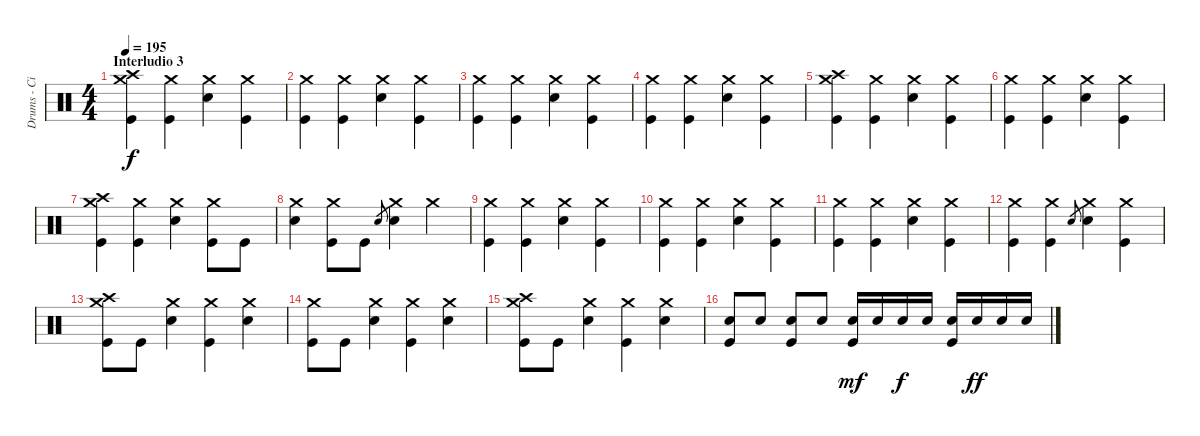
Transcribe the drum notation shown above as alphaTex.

\track ("Drums - Ciro" "Drums - Ci") {instrument percussion}
\staff {score}
\articulation defaults
\ts (4 4)
\section ("" "Interludio 3")
\tempo 195
\clef neutral
\ks c
("Crash medium (hit)" "Crash high (hit)" "Kick (hit)").4{dy f} ("Crash medium (hit)" "Kick (hit)").4 ("Crash medium (hit)" "Electric Snare (hit)").4 ("Crash medium (hit)" "Kick (hit)").4 |
("Crash medium (hit)" "Kick (hit)").4 ("Crash medium (hit)" "Kick (hit)").4 ("Crash medium (hit)" "Electric Snare (hit)").4 ("Crash medium (hit)" "Kick (hit)").4 |
("Crash medium (hit)" "Kick (hit)").4 ("Crash medium (hit)" "Kick (hit)").4 ("Crash medium (hit)" "Electric Snare (hit)").4 ("Crash medium (hit)" "Kick (hit)").4 |
("Crash medium (hit)" "Kick (hit)").4 ("Crash medium (hit)" "Kick (hit)").4 ("Crash medium (hit)" "Electric Snare (hit)").4 ("Crash medium (hit)" "Kick (hit)").4 |
("Crash medium (hit)" "Crash high (hit)" "Kick (hit)").4 ("Crash medium (hit)" "Kick (hit)").4 ("Crash medium (hit)" "Electric Snare (hit)").4 ("Crash medium (hit)" "Kick (hit)").4 |
("Crash medium (hit)" "Kick (hit)").4 ("Crash medium (hit)" "Kick (hit)").4 ("Crash medium (hit)" "Electric Snare (hit)").4 ("Crash medium (hit)" "Kick (hit)").4 |
("Crash medium (hit)" "Crash high (hit)" "Kick (hit)").4 ("Crash medium (hit)" "Kick (hit)").4 ("Crash medium (hit)" "Electric Snare (hit)").4 ("Crash medium (hit)" "Kick (hit)").8 "Kick (hit)".8 |
("Crash medium (hit)" "Electric Snare (hit)").4 ("Crash medium (hit)" "Kick (hit)").8 "Kick (hit)".8 "Electric Snare (hit)".8{gr} ("Crash medium (hit)" "Electric Snare (hit)").4 "Crash medium (hit)".4 |
("Crash medium (hit)" "Kick (hit)").4 ("Crash medium (hit)" "Kick (hit)").4 ("Crash medium (hit)" "Electric Snare (hit)").4 ("Crash medium (hit)" "Kick (hit)").4 |
("Crash medium (hit)" "Kick (hit)").4 ("Crash medium (hit)" "Kick (hit)").4 ("Crash medium (hit)" "Electric Snare (hit)").4 ("Crash medium (hit)" "Kick (hit)").4 |
("Crash medium (hit)" "Kick (hit)").4 ("Crash medium (hit)" "Kick (hit)").4 ("Crash medium (hit)" "Electric Snare (hit)").4 ("Crash medium (hit)" "Kick (hit)").4 |
("Crash medium (hit)" "Kick (hit)").4 ("Crash medium (hit)" "Kick (hit)").4 "Electric Snare (hit)".8{gr} ("Crash medium (hit)" "Electric Snare (hit)").4 ("Crash medium (hit)" "Kick (hit)").4 |
("Crash medium (hit)" "Crash high (hit)" "Kick (hit)").8 "Kick (hit)".8 ("Crash medium (hit)" "Electric Snare (hit)").4 ("Crash medium (hit)" "Kick (hit)").4 ("Crash medium (hit)" "Electric Snare (hit)").4 |
("Crash medium (hit)" "Kick (hit)").8 "Kick (hit)".8 ("Crash medium (hit)" "Electric Snare (hit)").4 ("Crash medium (hit)" "Kick (hit)").4 ("Crash medium (hit)" "Electric Snare (hit)").4 |
("Crash medium (hit)" "Crash high (hit)" "Kick (hit)").8 "Kick (hit)".8 ("Crash medium (hit)" "Electric Snare (hit)").4 ("Crash medium (hit)" "Kick (hit)").4 ("Crash medium (hit)" "Electric Snare (hit)").4 |
("Electric Snare (hit)" "Kick (hit)").8 "Electric Snare (hit)".8 ("Electric Snare (hit)" "Kick (hit)").8 "Electric Snare (hit)".8 ("Electric Snare (hit)" "Kick (hit)").16{dy mf} "Electric Snare (hit)".16 "Electric Snare (hit)".16{dy f} "Electric Snare (hit)".16 ("Electric Snare (hit)" "Kick (hit)").16 "Electric Snare (hit)".16{dy ff} "Electric Snare (hit)".16 "Electric Snare (hit)".16
